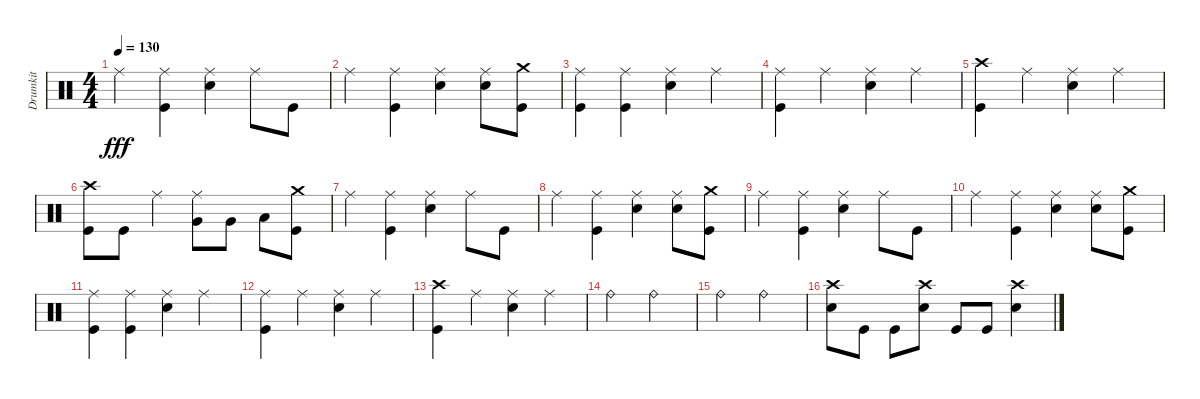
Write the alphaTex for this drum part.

\track ("Drumkit" "Drumkit") {instrument percussion}
\staff {score}
\articulation defaults
\ts (4 4)
\tempo 130
\clef neutral
\ks c "Ride (middle)".4{dy fff}
("Ride (middle)" "Kick (hit)").4 ("Ride (middle)" "Snare (hit) 2").4 "Ride (middle)".8 "Kick (hit)".8 |
"Ride (middle)".4 ("Ride (middle)" "Kick (hit)").4 ("Ride (middle)" "Snare (hit) 2").4 ("Ride (middle)" "Snare (hit) 2").8 ("Kick (hit)" "Crash medium (hit)").8 |
("Ride (middle)" "Kick (hit)").4 ("Ride (middle)" "Kick (hit)").4 ("Ride (middle)" "Snare (hit) 2").4 "Ride (middle)".4 |
("Ride (middle)" "Kick (hit)").4 "Ride (middle)".4 ("Ride (middle)" "Snare (hit) 2").4 "Ride (middle)".4 |
("Kick (hit)" "Crash high (hit)").4 "Ride (middle)".4 ("Ride (middle)" "Snare (hit) 2").4 "Ride (middle)".4 |
("Kick (hit)" "Crash high (hit)").8 "Kick (hit)".8 "Ride (middle)".4 ("Ride (middle)" "Very Low Tom (hit)").8 "Very Low Tom (hit)".8 "Low Tom (hit)".8 ("Crash medium (hit)" "Kick (hit)").8 |
"Ride (middle)".4 ("Ride (middle)" "Kick (hit)").4 ("Ride (middle)" "Snare (hit) 2").4 "Ride (middle)".8 "Kick (hit)".8 |
"Ride (middle)".4 ("Ride (middle)" "Kick (hit)").4 ("Ride (middle)" "Snare (hit) 2").4 ("Ride (middle)" "Snare (hit) 2").8 ("Kick (hit)" "Crash medium (hit)").8 |
"Ride (middle)".4 ("Ride (middle)" "Kick (hit)").4 ("Ride (middle)" "Snare (hit) 2").4 "Ride (middle)".8 "Kick (hit)".8 |
"Ride (middle)".4 ("Ride (middle)" "Kick (hit)").4 ("Ride (middle)" "Snare (hit) 2").4 ("Ride (middle)" "Snare (hit) 2").8 ("Kick (hit)" "Crash medium (hit)").8 |
("Ride (middle)" "Kick (hit)").4 ("Ride (middle)" "Kick (hit)").4 ("Ride (middle)" "Snare (hit) 2").4 "Ride (middle)".4 |
("Ride (middle)" "Kick (hit)").4 "Ride (middle)".4 ("Ride (middle)" "Snare (hit) 2").4 "Ride (middle)".4 |
("Kick (hit)" "Crash high (hit)").4 "Ride (middle)".4 ("Ride (middle)" "Snare (hit) 2").4 "Ride (middle)".4 |
"Ride (bell)".2 "Ride (bell)".2 |
"Ride (bell)".2 "Ride (bell)".2 |
("Snare (hit) 2" "Crash high (hit)").8 "Kick (hit)".8 "Kick (hit)".8 ("Snare (hit) 2" "Crash high (hit)").8 "Kick (hit)".8 "Kick (hit)".8 ("Snare (hit) 2" "Crash high (hit)").4
